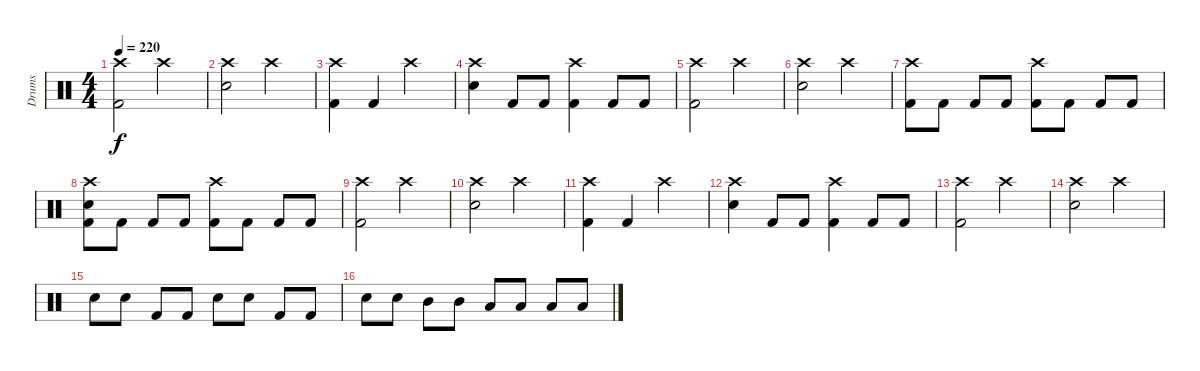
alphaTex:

\track ("Drums" "Drums") {instrument percussion}
\staff {score}
\articulation defaults
\ts (4 4)
\tempo 220
\clef neutral
\ks c
("Crash high (hit)" "Kick (hit) 2").2{dy f} "Crash high (hit)".2 |
("Crash high (hit)" "Electric Snare (hit)").2 "Crash high (hit)".2 |
("Crash high (hit)" "Kick (hit) 2").4 "Kick (hit) 2".4 "Crash high (hit)".2 |
("Crash high (hit)" "Electric Snare (hit)").4 "Kick (hit) 2".8 "Kick (hit) 2".8 ("Crash high (hit)" "Kick (hit) 2").4 "Kick (hit) 2".8 "Kick (hit) 2".8 |
("Crash high (hit)" "Kick (hit) 2").2 "Crash high (hit)".2 |
("Crash high (hit)" "Electric Snare (hit)").2 "Crash high (hit)".2 |
("Crash high (hit)" "Kick (hit) 2").8 "Kick (hit) 2".8 "Kick (hit) 2".8 "Kick (hit) 2".8 ("Crash high (hit)" "Kick (hit) 2").8 "Kick (hit) 2".8 "Kick (hit) 2".8 "Kick (hit) 2".8 |
("Crash high (hit)" "Electric Snare (hit)" "Kick (hit) 2").8 "Kick (hit) 2".8 "Kick (hit) 2".8 "Kick (hit) 2".8 ("Crash high (hit)" "Kick (hit) 2").8 "Kick (hit) 2".8 "Kick (hit) 2".8 "Kick (hit) 2".8 |
("Crash high (hit)" "Kick (hit) 2").2 "Crash high (hit)".2 |
("Crash high (hit)" "Electric Snare (hit)").2 "Crash high (hit)".2 |
("Crash high (hit)" "Kick (hit) 2").4 "Kick (hit) 2".4 "Crash high (hit)".2 |
("Crash high (hit)" "Electric Snare (hit)").4 "Kick (hit) 2".8 "Kick (hit) 2".8 ("Crash high (hit)" "Kick (hit) 2").4 "Kick (hit) 2".8 "Kick (hit) 2".8 |
("Crash high (hit)" "Kick (hit) 2").2 "Crash high (hit)".2 |
("Crash high (hit)" "Electric Snare (hit)").2 "Crash high (hit)".2 |
"Electric Snare (hit)".8 "Electric Snare (hit)".8 "Kick (hit) 2".8 "Kick (hit) 2".8 "Electric Snare (hit)".8 "Electric Snare (hit)".8 "Kick (hit) 2".8 "Kick (hit) 2".8 |
"Electric Snare (hit)".8 "Electric Snare (hit)".8 "Mid Tom (hit)".8 "Mid Tom (hit)".8 "Low Tom (hit)".8 "Low Tom (hit)".8 "Low Floor Tom (hit)".8 "Low Floor Tom (hit)".8
